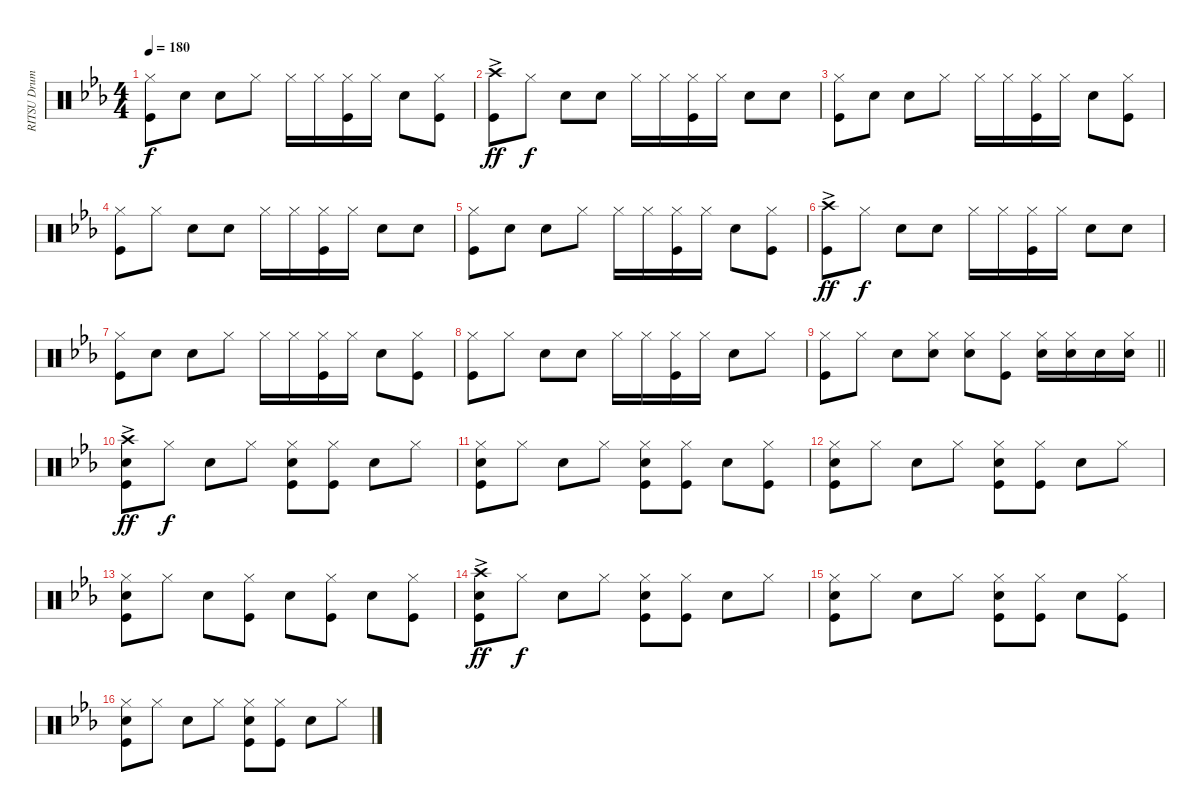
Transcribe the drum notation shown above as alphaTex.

\track ("RITSU Drums" "RITSU Drum") {instrument percussion}
\staff {score}
\articulation defaults
\ts (4 4)
\tempo 180
\clef neutral
\ks cminor
("Kick (hit)" "Hi-Hat (closed)").8{dy f} "Snare (hit) 2".8 "Snare (hit) 2".8 "Hi-Hat (closed)".8 "Hi-Hat (closed)".16 "Hi-Hat (closed)".16 ("Hi-Hat (closed)" "Kick (hit)").16 "Hi-Hat (closed)".16 "Snare (hit) 2".8 ("Hi-Hat (closed)" "Kick (hit)").8 |
("Crash high (hit)"{ac} "Kick (hit)").8{dy ff} "Hi-Hat (closed)".8{dy f} "Snare (hit) 2".8 "Snare (hit) 2".8 "Hi-Hat (closed)".16 "Hi-Hat (closed)".16 ("Hi-Hat (closed)" "Kick (hit)").16 "Hi-Hat (closed)".16 "Snare (hit) 2".8 "Snare (hit) 2".8 |
("Hi-Hat (closed)" "Kick (hit)").8 "Snare (hit) 2".8 "Snare (hit) 2".8 "Hi-Hat (closed)".8 "Hi-Hat (closed)".16 "Hi-Hat (closed)".16 ("Hi-Hat (closed)" "Kick (hit)").16 "Hi-Hat (closed)".16 "Snare (hit) 2".8 ("Kick (hit)" "Hi-Hat (closed)").8 |
("Kick (hit)" "Hi-Hat (closed)").8 "Hi-Hat (closed)".8 "Snare (hit) 2".8 "Snare (hit) 2".8 "Hi-Hat (closed)".16 "Hi-Hat (closed)".16 ("Hi-Hat (closed)" "Kick (hit)").16 "Hi-Hat (closed)".16 "Snare (hit) 2".8 "Snare (hit) 2".8 |
("Kick (hit)" "Hi-Hat (closed)").8 "Snare (hit) 2".8 "Snare (hit) 2".8 "Hi-Hat (closed)".8 "Hi-Hat (closed)".16 "Hi-Hat (closed)".16 ("Hi-Hat (closed)" "Kick (hit)").16 "Hi-Hat (closed)".16 "Snare (hit) 2".8 ("Hi-Hat (closed)" "Kick (hit)").8 |
("Crash high (hit)"{ac} "Kick (hit)").8{dy ff} "Hi-Hat (closed)".8{dy f} "Snare (hit) 2".8 "Snare (hit) 2".8 "Hi-Hat (closed)".16 "Hi-Hat (closed)".16 ("Hi-Hat (closed)" "Kick (hit)").16 "Hi-Hat (closed)".16 "Snare (hit) 2".8 "Snare (hit) 2".8 |
("Hi-Hat (closed)" "Kick (hit)").8 "Snare (hit) 2".8 "Snare (hit) 2".8 "Hi-Hat (closed)".8 "Hi-Hat (closed)".16 "Hi-Hat (closed)".16 ("Hi-Hat (closed)" "Kick (hit)").16 "Hi-Hat (closed)".16 "Snare (hit) 2".8 ("Kick (hit)" "Hi-Hat (closed)").8 |
("Kick (hit)" "Hi-Hat (closed)").8 "Hi-Hat (closed)".8 "Snare (hit) 2".8 "Snare (hit) 2".8 "Hi-Hat (closed)".16 "Hi-Hat (closed)".16 ("Hi-Hat (closed)" "Kick (hit)").16 "Hi-Hat (closed)".16 "Snare (hit) 2".8 "Hi-Hat (closed)".8 |
\barLineRight lightlight
("Hi-Hat (closed)" "Kick (hit)").8 "Hi-Hat (closed)".8 "Snare (hit) 2".8 ("Snare (hit) 2" "Hi-Hat (closed)").8 ("Hi-Hat (closed)" "Snare (hit) 2").8 ("Hi-Hat (closed)" "Kick (hit)").8 ("Snare (hit) 2" "Hi-Hat (closed)").16 ("Hi-Hat (closed)" "Snare (hit) 2").16 "Snare (hit) 2".16 ("Hi-Hat (closed)" "Snare (hit) 2").16 |
("Crash high (hit)"{ac} "Kick (hit)" "Snare (hit) 2").8{dy ff} "Hi-Hat (closed)".8{dy f} "Snare (hit) 2".8 "Hi-Hat (closed)".8 ("Hi-Hat (closed)" "Snare (hit) 2" "Kick (hit)").8 ("Kick (hit)" "Hi-Hat (closed)").8 "Snare (hit) 2".8 "Hi-Hat (closed)".8 |
("Snare (hit) 2" "Kick (hit)" "Hi-Hat (closed)").8 "Hi-Hat (closed)".8 "Snare (hit) 2".8 "Hi-Hat (closed)".8 ("Hi-Hat (closed)" "Snare (hit) 2" "Kick (hit)").8 ("Kick (hit)" "Hi-Hat (closed)").8 "Snare (hit) 2".8 ("Kick (hit)" "Hi-Hat (closed)").8 |
("Hi-Hat (closed)" "Kick (hit)" "Snare (hit) 2").8 "Hi-Hat (closed)".8 "Snare (hit) 2".8 "Hi-Hat (closed)".8 ("Hi-Hat (closed)" "Kick (hit)" "Snare (hit) 2").8 ("Kick (hit)" "Hi-Hat (closed)").8 "Snare (hit) 2".8 "Hi-Hat (closed)".8 |
("Hi-Hat (closed)" "Snare (hit) 2" "Kick (hit)").8 "Hi-Hat (closed)".8 "Snare (hit) 2".8 ("Hi-Hat (closed)" "Kick (hit)").8 "Snare (hit) 2".8 ("Hi-Hat (closed)" "Kick (hit)").8 "Snare (hit) 2".8 ("Kick (hit)" "Hi-Hat (closed)").8 |
("Crash high (hit)"{ac} "Kick (hit)" "Snare (hit) 2").8{dy ff} "Hi-Hat (closed)".8{dy f} "Snare (hit) 2".8 "Hi-Hat (closed)".8 ("Snare (hit) 2" "Kick (hit)" "Hi-Hat (closed)").8 ("Hi-Hat (closed)" "Kick (hit)").8 "Snare (hit) 2".8 "Hi-Hat (closed)".8 |
("Hi-Hat (closed)" "Snare (hit) 2" "Kick (hit)").8 "Hi-Hat (closed)".8 "Snare (hit) 2".8 "Hi-Hat (closed)".8 ("Hi-Hat (closed)" "Kick (hit)" "Snare (hit) 2").8 ("Kick (hit)" "Hi-Hat (closed)").8 "Snare (hit) 2".8 ("Hi-Hat (closed)" "Kick (hit)").8 |
("Hi-Hat (closed)" "Kick (hit)" "Snare (hit) 2").8 "Hi-Hat (closed)".8 "Snare (hit) 2".8 "Hi-Hat (closed)".8 ("Hi-Hat (closed)" "Kick (hit)" "Snare (hit) 2").8 ("Hi-Hat (closed)" "Kick (hit)").8 "Snare (hit) 2".8 "Hi-Hat (closed)".8
